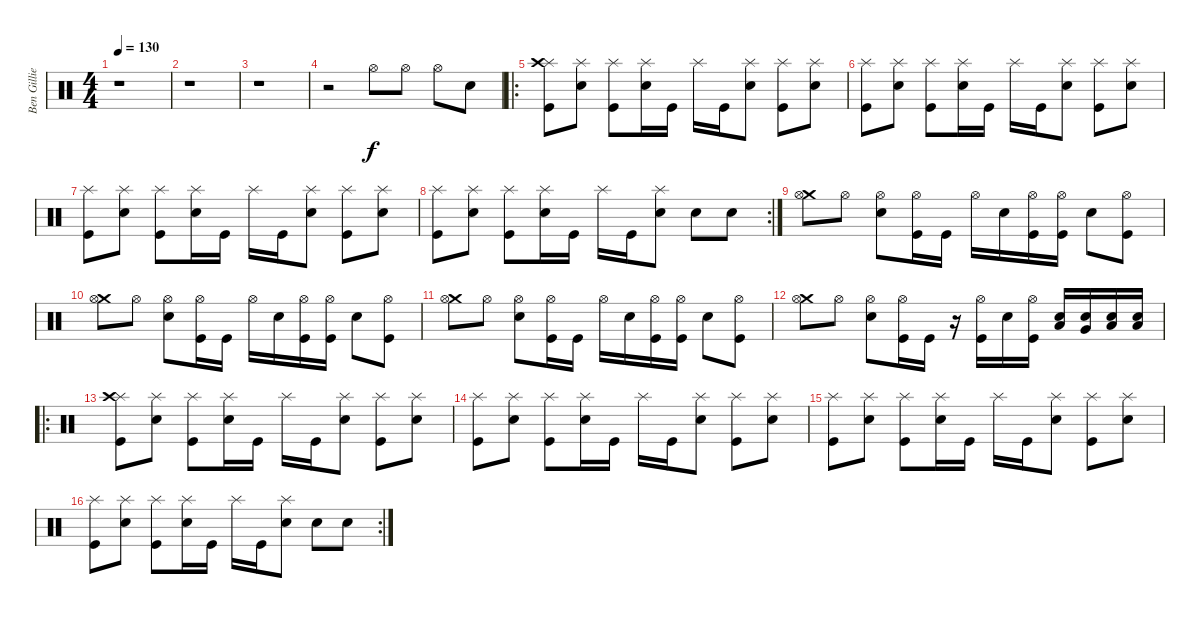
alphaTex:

\track ("Ben Gillies (Drums)" "Ben Gillie") {instrument percussion}
\staff {score}
\articulation defaults
\ts (4 4)
\tempo 130
\clef neutral
\ks c
r.1{dy f} |
r.1 |
r.1 |
r.2 "Hi-Hat (open)".8 "Hi-Hat (open)".8 "Hi-Hat (open)".8 "Electric Snare (hit)".8 |
\ro
("Splash (hit)" "Kick (hit)" "Crash high (hit)").8 ("Electric Snare (hit)" "Splash (hit)").8 ("Splash (hit)" "Kick (hit)").8 ("Electric Snare (hit)" "Splash (hit)").16 "Kick (hit)".16 "Splash (hit)".16 "Kick (hit)".16 ("Electric Snare (hit)" "Splash (hit)").8 ("Splash (hit)" "Kick (hit)").8 ("Electric Snare (hit)" "Splash (hit)").8 |
("Splash (hit)" "Kick (hit)").8 ("Electric Snare (hit)" "Splash (hit)").8 ("Splash (hit)" "Kick (hit)").8 ("Electric Snare (hit)" "Splash (hit)").16 "Kick (hit)".16 "Splash (hit)".16 "Kick (hit)".16 ("Electric Snare (hit)" "Splash (hit)").8 ("Splash (hit)" "Kick (hit)").8 ("Electric Snare (hit)" "Splash (hit)").8 |
("Splash (hit)" "Kick (hit)").8 ("Electric Snare (hit)" "Splash (hit)").8 ("Splash (hit)" "Kick (hit)").8 ("Electric Snare (hit)" "Splash (hit)").16 "Kick (hit)".16 "Splash (hit)".16 "Kick (hit)".16 ("Electric Snare (hit)" "Splash (hit)").8 ("Splash (hit)" "Kick (hit)").8 ("Electric Snare (hit)" "Splash (hit)").8 |
\rc 2
("Splash (hit)" "Kick (hit)").8 ("Electric Snare (hit)" "Splash (hit)").8 ("Splash (hit)" "Kick (hit)").8 ("Electric Snare (hit)" "Splash (hit)").16 "Kick (hit)".16 "Splash (hit)".16 "Kick (hit)".16 ("Electric Snare (hit)" "Splash (hit)").8 "Snare (hit) 2".8 "Snare (hit) 2".8 |
("Crash medium (hit)" "Hi-Hat (open)").8 "Hi-Hat (open)".8 ("Electric Snare (hit)" "Hi-Hat (open)").8 ("Hi-Hat (open)" "Kick (hit)").16 "Kick (hit)".16 "Hi-Hat (open)".16 "Electric Snare (hit)".16 ("Hi-Hat (open)" "Kick (hit)").16 ("Hi-Hat (open)" "Kick (hit)").16 "Electric Snare (hit)".8 ("Hi-Hat (open)" "Kick (hit)").8 |
("Crash medium (hit)" "Hi-Hat (open)").8 "Hi-Hat (open)".8 ("Electric Snare (hit)" "Hi-Hat (open)").8 ("Hi-Hat (open)" "Kick (hit)").16 "Kick (hit)".16 "Hi-Hat (open)".16 "Electric Snare (hit)".16 ("Hi-Hat (open)" "Kick (hit)").16 ("Hi-Hat (open)" "Kick (hit)").16 "Electric Snare (hit)".8 ("Hi-Hat (open)" "Kick (hit)").8 |
("Crash medium (hit)" "Hi-Hat (open)").8 "Hi-Hat (open)".8 ("Electric Snare (hit)" "Hi-Hat (open)").8 ("Hi-Hat (open)" "Kick (hit)").16 "Kick (hit)".16 "Hi-Hat (open)".16 "Electric Snare (hit)".16 ("Hi-Hat (open)" "Kick (hit)").16 ("Hi-Hat (open)" "Kick (hit)").16 "Electric Snare (hit)".8 ("Hi-Hat (open)" "Kick (hit)").8 |
("Crash medium (hit)" "Hi-Hat (open)").8 "Hi-Hat (open)".8 ("Electric Snare (hit)" "Hi-Hat (open)").8 ("Hi-Hat (open)" "Kick (hit)").16 "Kick (hit)".16 r.16 ("Hi-Hat (open)" "Kick (hit)").16 "Electric Snare (hit)".16 ("Hi-Hat (open)" "Kick (hit)").16 ("Low Tom (hit)" "Electric Snare (hit)").16 ("Very Low Tom (hit)" "Electric Snare (hit)").16 ("Low Floor Tom (hit)" "Electric Snare (hit)").16 ("Low Floor Tom (hit)" "Electric Snare (hit)").16 |
\ro
("Splash (hit)" "Kick (hit)" "Crash high (hit)").8 ("Electric Snare (hit)" "Splash (hit)").8 ("Splash (hit)" "Kick (hit)").8 ("Electric Snare (hit)" "Splash (hit)").16 "Kick (hit)".16 "Splash (hit)".16 "Kick (hit)".16 ("Electric Snare (hit)" "Splash (hit)").8 ("Splash (hit)" "Kick (hit)").8 ("Electric Snare (hit)" "Splash (hit)").8 |
("Splash (hit)" "Kick (hit)").8 ("Electric Snare (hit)" "Splash (hit)").8 ("Splash (hit)" "Kick (hit)").8 ("Electric Snare (hit)" "Splash (hit)").16 "Kick (hit)".16 "Splash (hit)".16 "Kick (hit)".16 ("Electric Snare (hit)" "Splash (hit)").8 ("Splash (hit)" "Kick (hit)").8 ("Electric Snare (hit)" "Splash (hit)").8 |
("Splash (hit)" "Kick (hit)").8 ("Electric Snare (hit)" "Splash (hit)").8 ("Splash (hit)" "Kick (hit)").8 ("Electric Snare (hit)" "Splash (hit)").16 "Kick (hit)".16 "Splash (hit)".16 "Kick (hit)".16 ("Electric Snare (hit)" "Splash (hit)").8 ("Splash (hit)" "Kick (hit)").8 ("Electric Snare (hit)" "Splash (hit)").8 |
\rc 2
("Splash (hit)" "Kick (hit)").8 ("Electric Snare (hit)" "Splash (hit)").8 ("Splash (hit)" "Kick (hit)").8 ("Electric Snare (hit)" "Splash (hit)").16 "Kick (hit)".16 "Splash (hit)".16 "Kick (hit)".16 ("Electric Snare (hit)" "Splash (hit)").8 "Snare (hit) 2".8 "Snare (hit) 2".8
